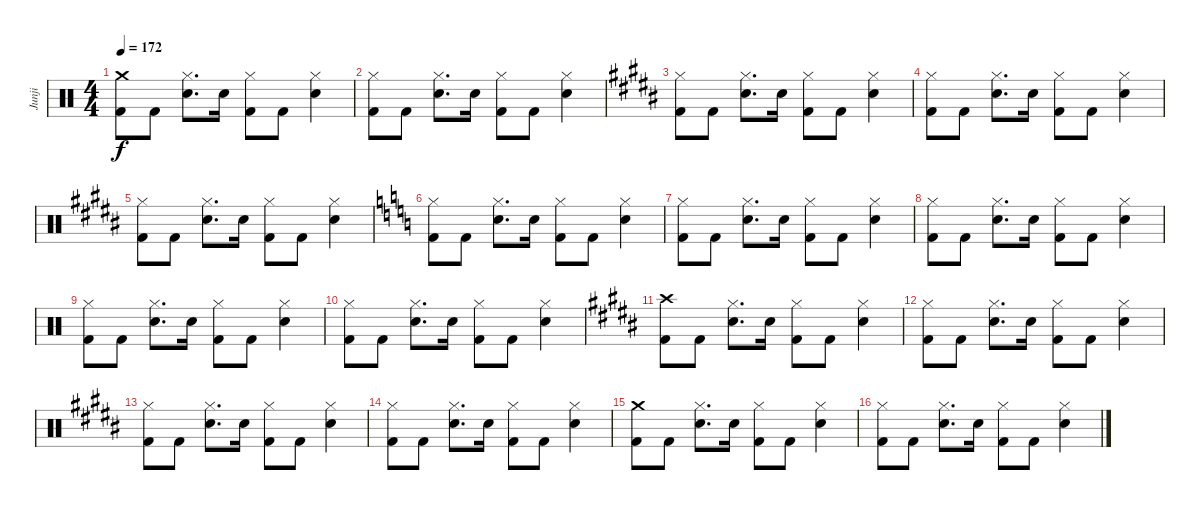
\track ("Junji" "Junji") {instrument percussion}
\staff {score}
\articulation defaults
\ts (4 4)
\tempo 172
\clef neutral
\ks c
("Crash medium (hit)" "Kick (hit) 2").8{dy f} "Kick (hit) 2".8 ("Hi-Hat (closed)" "Snare (hit) 2").8{d} "Snare (hit) 2".16 ("Hi-Hat (closed)" "Kick (hit) 2").8 "Kick (hit) 2".8 ("Hi-Hat (closed)" "Snare (hit) 2").4 |
("Hi-Hat (closed)" "Kick (hit) 2").8 "Kick (hit) 2".8 ("Hi-Hat (closed)" "Snare (hit) 2").8{d} "Snare (hit) 2".16 ("Hi-Hat (closed)" "Kick (hit) 2").8 "Kick (hit) 2".8 ("Hi-Hat (closed)" "Snare (hit) 2").4 |
\ks b
("Hi-Hat (closed)" "Kick (hit) 2").8 "Kick (hit) 2".8 ("Hi-Hat (closed)" "Snare (hit) 2").8{d} "Snare (hit) 2".16 ("Hi-Hat (closed)" "Kick (hit) 2").8 "Kick (hit) 2".8 ("Hi-Hat (closed)" "Snare (hit) 2").4 |
("Hi-Hat (closed)" "Kick (hit) 2").8 "Kick (hit) 2".8 ("Hi-Hat (closed)" "Snare (hit) 2").8{d} "Snare (hit) 2".16 ("Hi-Hat (closed)" "Kick (hit) 2").8 "Kick (hit) 2".8 ("Hi-Hat (closed)" "Snare (hit) 2").4 |
("Hi-Hat (closed)" "Kick (hit) 2").8 "Kick (hit) 2".8 ("Hi-Hat (closed)" "Snare (hit) 2").8{d} "Snare (hit) 2".16 ("Hi-Hat (closed)" "Kick (hit) 2").8 "Kick (hit) 2".8 ("Hi-Hat (closed)" "Snare (hit) 2").4 |
\ks c
("Hi-Hat (closed)" "Kick (hit) 2").8 "Kick (hit) 2".8 ("Hi-Hat (closed)" "Snare (hit) 2").8{d} "Snare (hit) 2".16 ("Hi-Hat (closed)" "Kick (hit) 2").8 "Kick (hit) 2".8 ("Hi-Hat (closed)" "Snare (hit) 2").4 |
("Hi-Hat (closed)" "Kick (hit) 2").8 "Kick (hit) 2".8 ("Hi-Hat (closed)" "Snare (hit) 2").8{d} "Snare (hit) 2".16 ("Hi-Hat (closed)" "Kick (hit) 2").8 "Kick (hit) 2".8 ("Hi-Hat (closed)" "Snare (hit) 2").4 |
("Hi-Hat (closed)" "Kick (hit) 2").8 "Kick (hit) 2".8 ("Hi-Hat (closed)" "Snare (hit) 2").8{d} "Snare (hit) 2".16 ("Hi-Hat (closed)" "Kick (hit) 2").8 "Kick (hit) 2".8 ("Hi-Hat (closed)" "Snare (hit) 2").4 |
("Hi-Hat (closed)" "Kick (hit) 2").8 "Kick (hit) 2".8 ("Hi-Hat (closed)" "Snare (hit) 2").8{d} "Snare (hit) 2".16 ("Hi-Hat (closed)" "Kick (hit) 2").8 "Kick (hit) 2".8 ("Hi-Hat (closed)" "Snare (hit) 2").4 |
("Hi-Hat (closed)" "Kick (hit) 2").8 "Kick (hit) 2".8 ("Hi-Hat (closed)" "Snare (hit) 2").8{d} "Snare (hit) 2".16 ("Hi-Hat (closed)" "Kick (hit) 2").8 "Kick (hit) 2".8 ("Hi-Hat (closed)" "Snare (hit) 2").4 |
\ks b
("Crash high (hit)" "Kick (hit) 2").8 "Kick (hit) 2".8 ("Hi-Hat (closed)" "Snare (hit) 2").8{d} "Snare (hit) 2".16 ("Hi-Hat (closed)" "Kick (hit) 2").8 "Kick (hit) 2".8 ("Hi-Hat (closed)" "Snare (hit) 2").4 |
("Hi-Hat (closed)" "Kick (hit) 2").8 "Kick (hit) 2".8 ("Hi-Hat (closed)" "Snare (hit) 2").8{d} "Snare (hit) 2".16 ("Hi-Hat (closed)" "Kick (hit) 2").8 "Kick (hit) 2".8 ("Hi-Hat (closed)" "Snare (hit) 2").4 |
("Hi-Hat (closed)" "Kick (hit) 2").8 "Kick (hit) 2".8 ("Hi-Hat (closed)" "Snare (hit) 2").8{d} "Snare (hit) 2".16 ("Hi-Hat (closed)" "Kick (hit) 2").8 "Kick (hit) 2".8 ("Hi-Hat (closed)" "Snare (hit) 2").4 |
("Hi-Hat (closed)" "Kick (hit) 2").8 "Kick (hit) 2".8 ("Hi-Hat (closed)" "Snare (hit) 2").8{d} "Snare (hit) 2".16 ("Hi-Hat (closed)" "Kick (hit) 2").8 "Kick (hit) 2".8 ("Hi-Hat (closed)" "Snare (hit) 2").4 |
("Crash medium (hit)" "Kick (hit) 2").8 "Kick (hit) 2".8 ("Hi-Hat (closed)" "Snare (hit) 2").8{d} "Snare (hit) 2".16 ("Hi-Hat (closed)" "Kick (hit) 2").8 "Kick (hit) 2".8 ("Hi-Hat (closed)" "Snare (hit) 2").4 |
("Hi-Hat (closed)" "Kick (hit) 2").8 "Kick (hit) 2".8 ("Hi-Hat (closed)" "Snare (hit) 2").8{d} "Snare (hit) 2".16 ("Hi-Hat (closed)" "Kick (hit) 2").8 "Kick (hit) 2".8 ("Hi-Hat (closed)" "Snare (hit) 2").4
